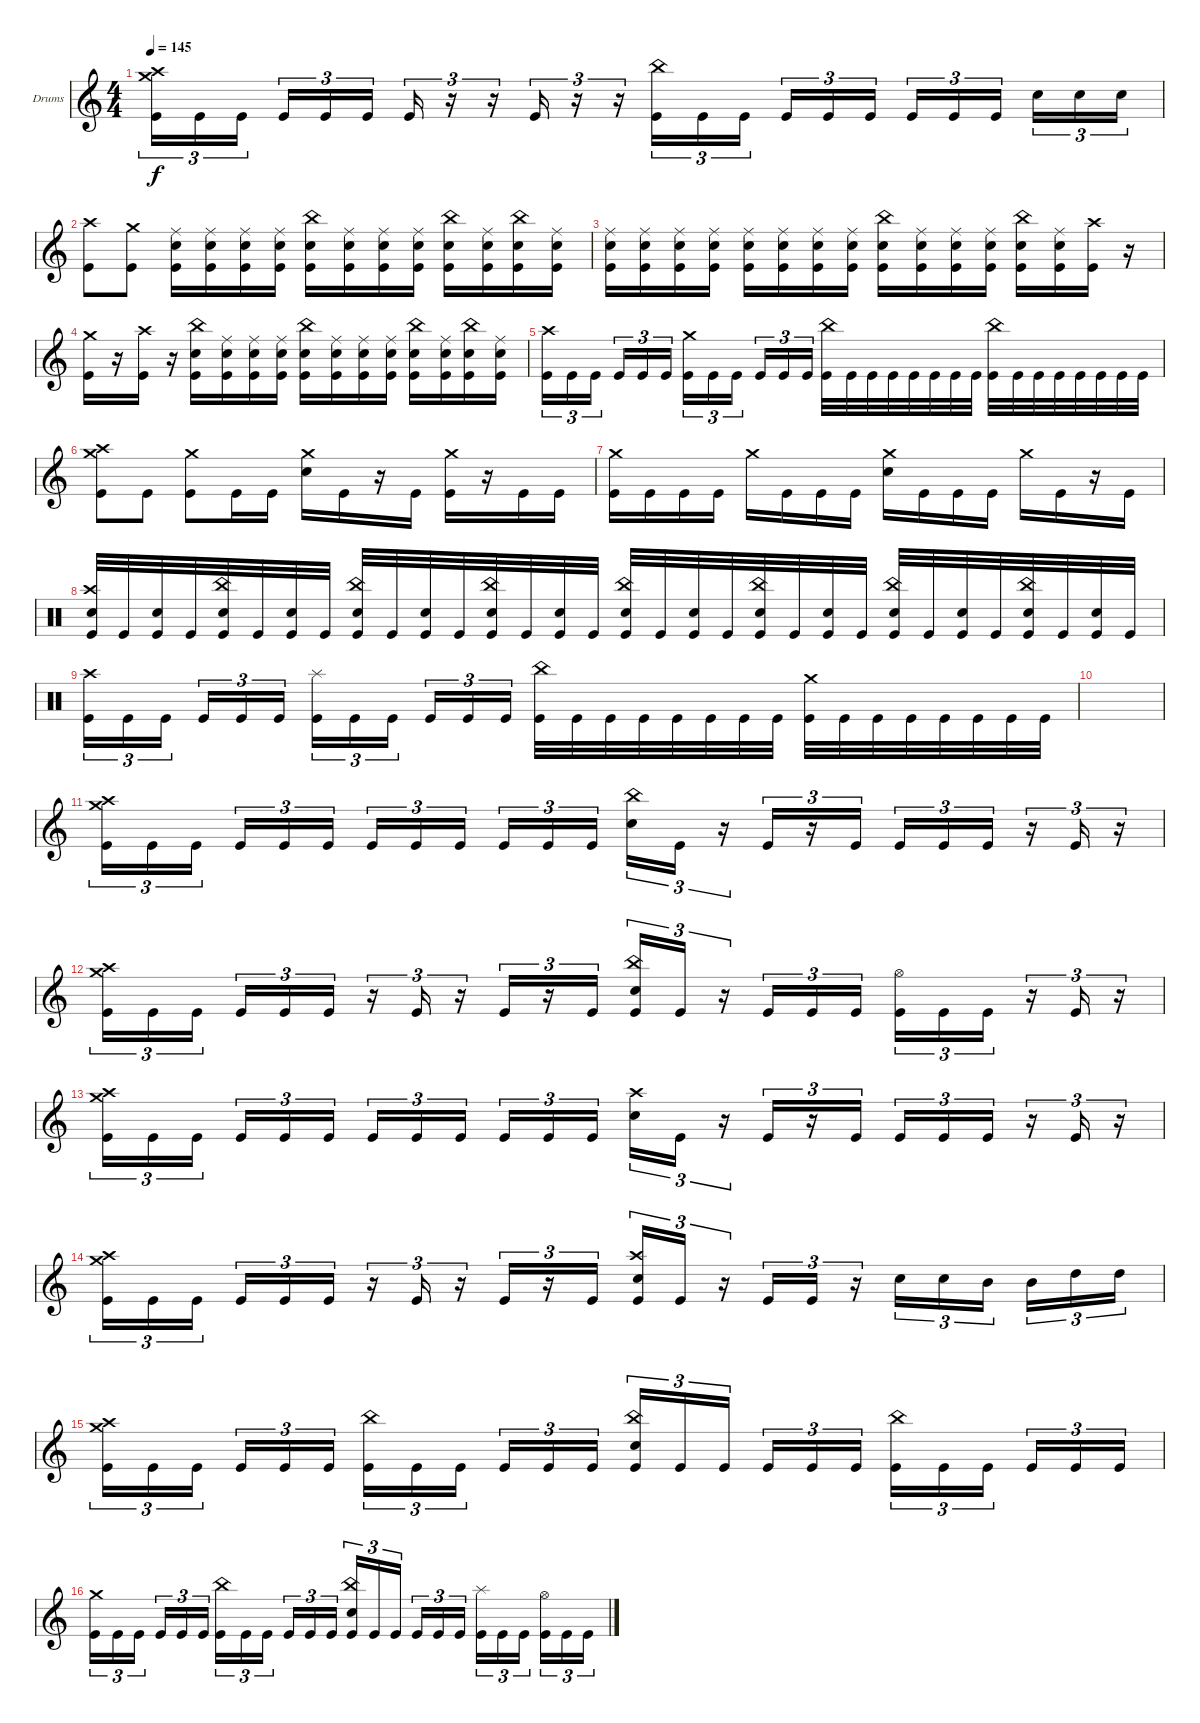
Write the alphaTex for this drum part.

\defaultSystemsLayout 4
\bracketExtendMode groupsimilarinstruments
\firstSystemTrackNameOrientation horizontal
\otherSystemsTrackNameOrientation horizontal
\track ("Drums" "Drums") {instrument percussion}
\staff {score}
\articulation defaults
\ts (4 4)
\tempo 145
\clef g2
\ks c
("Kick (hit)" "Crash high (hit)" "Crash medium (hit)").16{tu (3 2) dy f} "Kick (hit)".16{tu (3 2)} "Kick (hit)".16{tu (3 2)} "Kick (hit)".16{tu (3 2)} "Kick (hit)".16{tu (3 2)} "Kick (hit)".16{tu (3 2)} "Kick (hit)".16{tu (3 2)} r.16{tu (3 2)} r.16{tu (3 2)} "Kick (hit)".16{tu (3 2)} r.16{tu (3 2)} r.16{tu (3 2)} ("Kick (hit)" "China (hit)").16{tu (3 2)} "Kick (hit)".16{tu (3 2)} "Kick (hit)".16{tu (3 2)} "Kick (hit)".16{tu (3 2)} "Kick (hit)".16{tu (3 2)} "Kick (hit)".16{tu (3 2)} "Kick (hit)".16{tu (3 2)} "Kick (hit)".16{tu (3 2)} "Kick (hit)".16{tu (3 2)} "Snare (hit) 2".16{tu (3 2)} "Snare (hit) 2".16{tu (3 2)} "Snare (hit) 2".16{tu (3 2)} |
("Kick (hit)" "Crash high (hit)").8 ("Kick (hit)" "Crash medium (hit)").8 ("Kick (hit)" "Snare (hit) 2" "Ride (middle)").16 ("Kick (hit)" "Snare (hit) 2" "Ride (middle)").16 ("Kick (hit)" "Snare (hit) 2" "Ride (middle)").16 ("Kick (hit)" "Snare (hit) 2" "Ride (middle)").16 ("Kick (hit)" "Snare (hit) 2" "China (hit)").16 ("Kick (hit)" "Snare (hit) 2" "Ride (middle)").16 ("Kick (hit)" "Snare (hit) 2" "Ride (middle)").16 ("Kick (hit)" "Snare (hit) 2" "Ride (middle)").16 ("Kick (hit)" "Snare (hit) 2" "China (hit)").16 ("Kick (hit)" "Snare (hit) 2" "Ride (middle)").16 ("Kick (hit)" "Snare (hit) 2" "China (hit)").16 ("Kick (hit)" "Snare (hit) 2" "Ride (middle)").16 |
("Kick (hit)" "Snare (hit) 2" "Ride (middle)").16 ("Kick (hit)" "Snare (hit) 2" "Ride (middle)").16 ("Kick (hit)" "Snare (hit) 2" "Ride (middle)").16 ("Kick (hit)" "Snare (hit) 2" "Ride (middle)").16 ("Kick (hit)" "Snare (hit) 2" "Ride (middle)").16 ("Kick (hit)" "Snare (hit) 2" "Ride (middle)").16 ("Kick (hit)" "Snare (hit) 2" "Ride (middle)").16 ("Kick (hit)" "Snare (hit) 2" "Ride (middle)").16 ("Kick (hit)" "Snare (hit) 2" "China (hit)").16 ("Kick (hit)" "Snare (hit) 2" "Ride (middle)").16 ("Kick (hit)" "Snare (hit) 2" "Ride (middle)").16 ("Kick (hit)" "Snare (hit) 2" "Ride (middle)").16 ("Kick (hit)" "Snare (hit) 2" "China (hit)").16 ("Kick (hit)" "Snare (hit) 2" "Ride (middle)").16 ("Kick (hit)" "Crash high (hit)").16 r.16 |
("Kick (hit)" "Crash medium (hit)").16 r.16 ("Kick (hit)" "Crash high (hit)").16 r.16 ("Kick (hit)" "Snare (hit) 2" "China (hit)").16 ("Kick (hit)" "Snare (hit) 2" "Ride (middle)").16 ("Kick (hit)" "Snare (hit) 2" "Ride (middle)").16 ("Kick (hit)" "Snare (hit) 2" "Ride (middle)").16 ("Kick (hit)" "Snare (hit) 2" "China (hit)").16 ("Kick (hit)" "Snare (hit) 2" "Ride (middle)").16 ("Kick (hit)" "Snare (hit) 2" "Ride (middle)").16 ("Kick (hit)" "Snare (hit) 2" "Ride (middle)").16 ("Kick (hit)" "Snare (hit) 2" "China (hit)").16 ("Kick (hit)" "Snare (hit) 2" "Ride (middle)").16 ("Kick (hit)" "Snare (hit) 2" "China (hit)").16 ("Kick (hit)" "Snare (hit) 2" "Ride (middle)").16 |
("Kick (hit)" "Crash high (hit)").16{tu (3 2)} "Kick (hit)".16{tu (3 2)} "Kick (hit)".16{tu (3 2)} "Kick (hit)".16{tu (3 2)} "Kick (hit)".16{tu (3 2)} "Kick (hit)".16{tu (3 2)} ("Kick (hit)" "Crash medium (hit)").16{tu (3 2)} "Kick (hit)".16{tu (3 2)} "Kick (hit)".16{tu (3 2)} "Kick (hit)".16{tu (3 2)} "Kick (hit)".16{tu (3 2)} "Kick (hit)".16{tu (3 2)} ("Kick (hit)" "China (hit)").32 "Kick (hit)".32 "Kick (hit)".32 "Kick (hit)".32 "Kick (hit)".32 "Kick (hit)".32 "Kick (hit)".32 "Kick (hit)".32 ("Kick (hit)" "China (hit)").32 "Kick (hit)".32 "Kick (hit)".32 "Kick (hit)".32 "Kick (hit)".32 "Kick (hit)".32 "Kick (hit)".32 "Kick (hit)".32 |
("Kick (hit)" "Crash high (hit)" "Crash medium (hit)").8 "Kick (hit)".8 ("Kick (hit)" "Crash medium (hit)").8 "Kick (hit)".16 "Kick (hit)".16 ("Crash medium (hit)" "Snare (hit) 2").16 "Kick (hit)".16 r.16 "Kick (hit)".16 ("Kick (hit)" "Crash medium (hit)").16 r.16 "Kick (hit)".16 "Kick (hit)".16 |
("Kick (hit)" "Crash medium (hit)").16 "Kick (hit)".16 "Kick (hit)".16 "Kick (hit)".16 "Crash medium (hit)".16 "Kick (hit)".16 "Kick (hit)".16 "Kick (hit)".16 ("Crash medium (hit)" "Snare (hit) 2").16 "Kick (hit)".16 "Kick (hit)".16 "Kick (hit)".16 "Crash medium (hit)".16 "Kick (hit)".16 r.16 "Kick (hit)".16 |
\clef neutral
("Kick (hit)" "Snare (hit) 2" "Crash high (hit)").32 "Kick (hit)".32 ("Kick (hit)" "Snare (hit) 2").32 "Kick (hit)".32 ("Kick (hit)" "Snare (hit) 2" "China (hit)").32 "Kick (hit)".32 ("Kick (hit)" "Snare (hit) 2").32 "Kick (hit)".32 ("Kick (hit)" "China (hit)" "Snare (hit) 2").32 "Kick (hit)".32 ("Kick (hit)" "Snare (hit) 2").32 "Kick (hit)".32 ("Kick (hit)" "Snare (hit) 2" "China (hit)").32 "Kick (hit)".32 ("Kick (hit)" "Snare (hit) 2").32 "Kick (hit)".32 ("Kick (hit)" "China (hit)" "Snare (hit) 2").32 "Kick (hit)".32 ("Kick (hit)" "Snare (hit) 2").32 "Kick (hit)".32 ("Kick (hit)" "Snare (hit) 2" "China (hit)").32 "Kick (hit)".32 ("Kick (hit)" "Snare (hit) 2").32 "Kick (hit)".32 ("Kick (hit)" "Snare (hit) 2" "China (hit)").32 "Kick (hit)".32 ("Kick (hit)" "Snare (hit) 2").32 "Kick (hit)".32 ("Kick (hit)" "Snare (hit) 2" "China (hit)").32 "Kick (hit)".32 ("Kick (hit)" "Snare (hit) 2").32 "Kick (hit)".32 |
("Kick (hit)" "Crash high (hit)").16{tu (3 2)} "Kick (hit)".16{tu (3 2)} "Kick (hit)".16{tu (3 2)} "Kick (hit)".16{tu (3 2)} "Kick (hit)".16{tu (3 2)} "Kick (hit)".16{tu (3 2)} ("Kick (hit)" "Splash (hit)").16{tu (3 2)} "Kick (hit)".16{tu (3 2)} "Kick (hit)".16{tu (3 2)} "Kick (hit)".16{tu (3 2)} "Kick (hit)".16{tu (3 2)} "Kick (hit)".16{tu (3 2)} ("Kick (hit)" "China (hit)").32 "Kick (hit)".32 "Kick (hit)".32 "Kick (hit)".32 "Kick (hit)".32 "Kick (hit)".32 "Kick (hit)".32 "Kick (hit)".32 ("Kick (hit)" "Crash medium (hit)").32 "Kick (hit)".32 "Kick (hit)".32 "Kick (hit)".32 "Kick (hit)".32 "Kick (hit)".32 "Kick (hit)".32 "Kick (hit)".32 |
|
\clef g2
("Kick (hit)" "Crash high (hit)" "Crash medium (hit)").16{tu (3 2)} "Kick (hit)".16{tu (3 2)} "Kick (hit)".16{tu (3 2)} "Kick (hit)".16{tu (3 2)} "Kick (hit)".16{tu (3 2)} "Kick (hit)".16{tu (3 2)} "Kick (hit)".16{tu (3 2)} "Kick (hit)".16{tu (3 2)} "Kick (hit)".16{tu (3 2)} "Kick (hit)".16{tu (3 2)} "Kick (hit)".16{tu (3 2)} "Kick (hit)".16{tu (3 2)} ("China (hit)" "Snare (hit) 2").16{tu (3 2)} "Kick (hit)".16{tu (3 2)} r.16{tu (3 2)} "Kick (hit)".16{tu (3 2)} r.16{tu (3 2)} "Kick (hit)".16{tu (3 2)} "Kick (hit)".16{tu (3 2)} "Kick (hit)".16{tu (3 2)} "Kick (hit)".16{tu (3 2)} r.16{tu (3 2)} "Kick (hit)".16{tu (3 2)} r.16{tu (3 2)} |
("Kick (hit)" "Crash high (hit)" "Crash medium (hit)").16{tu (3 2)} "Kick (hit)".16{tu (3 2)} "Kick (hit)".16{tu (3 2)} "Kick (hit)".16{tu (3 2)} "Kick (hit)".16{tu (3 2)} "Kick (hit)".16{tu (3 2)} r.16{tu (3 2)} "Kick (hit)".16{tu (3 2)} r.16{tu (3 2)} "Kick (hit)".16{tu (3 2)} r.16{tu (3 2)} "Kick (hit)".16{tu (3 2)} ("Kick (hit)" "Snare (hit) 2" "China (hit)").16{tu (3 2)} "Kick (hit)".16{tu (3 2)} r.16{tu (3 2)} "Kick (hit)".16{tu (3 2)} "Kick (hit)".16{tu (3 2)} "Kick (hit)".16{tu (3 2)} ("Kick (hit)" "Hi-Hat (open)").16{tu (3 2)} "Kick (hit)".16{tu (3 2)} "Kick (hit)".16{tu (3 2)} r.16{tu (3 2)} "Kick (hit)".16{tu (3 2)} r.16{tu (3 2)} |
("Kick (hit)" "Crash high (hit)" "Crash medium (hit)").16{tu (3 2)} "Kick (hit)".16{tu (3 2)} "Kick (hit)".16{tu (3 2)} "Kick (hit)".16{tu (3 2)} "Kick (hit)".16{tu (3 2)} "Kick (hit)".16{tu (3 2)} "Kick (hit)".16{tu (3 2)} "Kick (hit)".16{tu (3 2)} "Kick (hit)".16{tu (3 2)} "Kick (hit)".16{tu (3 2)} "Kick (hit)".16{tu (3 2)} "Kick (hit)".16{tu (3 2)} ("Snare (hit) 2" "Crash high (hit)").16{tu (3 2)} "Kick (hit)".16{tu (3 2)} r.16{tu (3 2)} "Kick (hit)".16{tu (3 2)} r.16{tu (3 2)} "Kick (hit)".16{tu (3 2)} "Kick (hit)".16{tu (3 2)} "Kick (hit)".16{tu (3 2)} "Kick (hit)".16{tu (3 2)} r.16{tu (3 2)} "Kick (hit)".16{tu (3 2)} r.16{tu (3 2)} |
("Kick (hit)" "Crash high (hit)" "Crash medium (hit)").16{tu (3 2)} "Kick (hit)".16{tu (3 2)} "Kick (hit)".16{tu (3 2)} "Kick (hit)".16{tu (3 2)} "Kick (hit)".16{tu (3 2)} "Kick (hit)".16{tu (3 2)} r.16{tu (3 2)} "Kick (hit)".16{tu (3 2)} r.16{tu (3 2)} "Kick (hit)".16{tu (3 2)} r.16{tu (3 2)} "Kick (hit)".16{tu (3 2)} ("Kick (hit)" "Snare (hit) 2" "Crash high (hit)").16{tu (3 2)} "Kick (hit)".16{tu (3 2)} r.16{tu (3 2)} "Kick (hit)".16{tu (3 2)} "Kick (hit)".16{tu (3 2)} r.16{tu (3 2)} "Snare (hit) 2".16{tu (3 2)} "Snare (hit) 2".16{tu (3 2)} "Mid Tom (hit)".16{tu (3 2)} "Mid Tom (hit)".16{tu (3 2)} "High Tom (hit)".16{tu (3 2)} "High Tom (hit)".16{tu (3 2)} |
("Kick (hit)" "Crash medium (hit)" "Crash high (hit)").16{tu (3 2)} "Kick (hit)".16{tu (3 2)} "Kick (hit)".16{tu (3 2)} "Kick (hit)".16{tu (3 2)} "Kick (hit)".16{tu (3 2)} "Kick (hit)".16{tu (3 2)} ("Kick (hit)" "China (hit)").16{tu (3 2)} "Kick (hit)".16{tu (3 2)} "Kick (hit)".16{tu (3 2)} "Kick (hit)".16{tu (3 2)} "Kick (hit)".16{tu (3 2)} "Kick (hit)".16{tu (3 2)} ("Kick (hit)" "Snare (hit) 2" "China (hit)").16{tu (3 2)} "Kick (hit)".16{tu (3 2)} "Kick (hit)".16{tu (3 2)} "Kick (hit)".16{tu (3 2)} "Kick (hit)".16{tu (3 2)} "Kick (hit)".16{tu (3 2)} ("Kick (hit)" "China (hit)").16{tu (3 2)} "Kick (hit)".16{tu (3 2)} "Kick (hit)".16{tu (3 2)} "Kick (hit)".16{tu (3 2)} "Kick (hit)".16{tu (3 2)} "Kick (hit)".16{tu (3 2)} |
("Kick (hit)" "Crash medium (hit)").16{tu (3 2)} "Kick (hit)".16{tu (3 2)} "Kick (hit)".16{tu (3 2)} "Kick (hit)".16{tu (3 2)} "Kick (hit)".16{tu (3 2)} "Kick (hit)".16{tu (3 2)} ("Kick (hit)" "China (hit)").16{tu (3 2)} "Kick (hit)".16{tu (3 2)} "Kick (hit)".16{tu (3 2)} "Kick (hit)".16{tu (3 2)} "Kick (hit)".16{tu (3 2)} "Kick (hit)".16{tu (3 2)} ("Kick (hit)" "Snare (hit) 2" "China (hit)").16{tu (3 2)} "Kick (hit)".16{tu (3 2)} "Kick (hit)".16{tu (3 2)} "Kick (hit)".16{tu (3 2)} "Kick (hit)".16{tu (3 2)} "Kick (hit)".16{tu (3 2)} ("Kick (hit)" "Splash (hit)").16{tu (3 2)} "Kick (hit)".16{tu (3 2)} "Kick (hit)".16{tu (3 2)} ("Kick (hit)" "Hi-Hat (open)").16{tu (3 2)} "Kick (hit)".16{tu (3 2)} "Kick (hit)".16{tu (3 2)}
